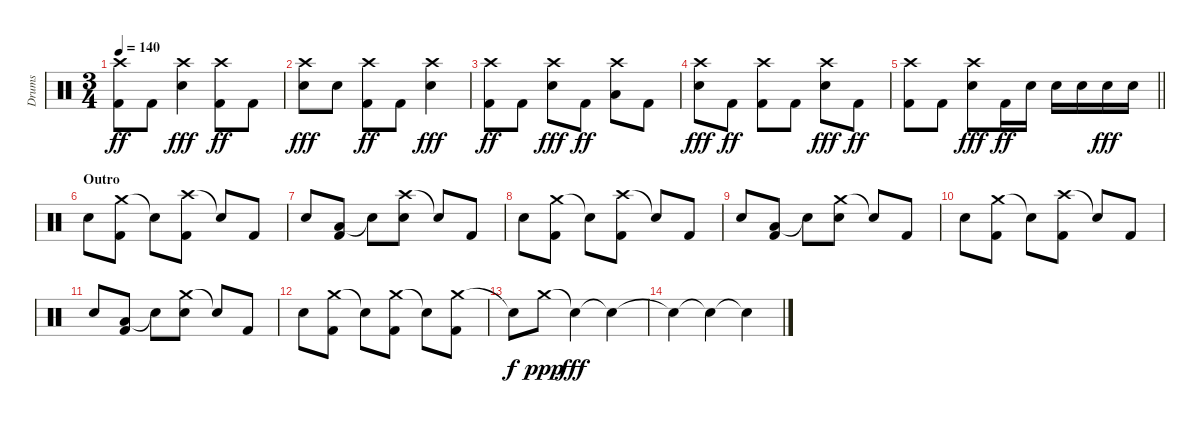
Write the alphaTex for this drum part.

\track ("Drums" "Drums") {instrument percussion}
\staff {score}
\articulation defaults
\ts (3 4)
\tempo 140
\clef neutral
\ks c
("Crash high (hit)" "Kick (hit) 2").8{dy ff} "Kick (hit) 2".8 ("Crash high (hit)" "Snare (hit) 2").4{dy fff} ("Crash high (hit)" "Kick (hit) 2").8{dy ff} "Kick (hit) 2".8 |
("Crash high (hit)" "Snare (hit) 2").8{dy fff} "Snare (hit) 2".8 ("Crash high (hit)" "Kick (hit) 2").8{dy ff} "Kick (hit) 2".8 ("Crash high (hit)" "Snare (hit) 2").4{dy fff} |
("Crash high (hit)" "Kick (hit) 2").8{dy ff} "Kick (hit) 2".8 ("Crash high (hit)" "Snare (hit) 2").8{dy fff} "Kick (hit) 2".8{dy ff} ("Crash high (hit)" "Low Tom (hit)").8 "Kick (hit) 2".8 |
("Crash high (hit)" "Snare (hit) 2").8{dy fff} "Kick (hit) 2".8{dy ff} ("Crash high (hit)" "Kick (hit) 2").8 "Kick (hit) 2".8 ("Crash high (hit)" "Snare (hit) 2").8{dy fff} "Kick (hit) 2".8{dy ff} |
\barLineRight lightlight
("Crash high (hit)" "Kick (hit) 2").8 "Kick (hit) 2".8 ("Crash high (hit)" "Snare (hit) 2").8{dy fff} "Kick (hit) 2".16{dy ff} "Snare (hit) 2".16 "Snare (hit) 2".16 "Snare (hit) 2".16 "Snare (hit) 2".16{dy fff} "Snare (hit) 2".16 |
\section ("" "Outro")
"Snare (hit) 2".8 ("Crash medium (hit)" "Kick (hit) 2").8 "Snare (hit)"{t}.8 ("Crash high (hit)" "Kick (hit) 2").8 "Snare (hit)"{t}.8 "Kick (hit) 2".8 |
"Snare (hit) 2".8 ("Low Tom (hit)" "Kick (hit) 2").8 "Snare (hit)"{t}.8 ("Crash high (hit)" "Snare (hit) 2").8 "Snare (hit)"{t}.8 "Kick (hit) 2".8 |
"Snare (hit) 2".8 ("Crash medium (hit)" "Kick (hit) 2").8 "Snare (hit)"{t}.8 ("Crash high (hit)" "Kick (hit) 2").8 "Snare (hit)"{t}.8 "Kick (hit) 2".8 |
"Snare (hit) 2".8 ("Low Tom (hit)" "Kick (hit) 2").8 "Snare (hit)"{t}.8 ("Crash medium (hit)" "Snare (hit) 2").8 "Snare (hit)"{t}.8 "Kick (hit) 2".8 |
"Snare (hit) 2".8 ("Crash medium (hit)" "Kick (hit) 2").8 "Snare (hit)"{t}.8 ("Crash high (hit)" "Kick (hit) 2").8 "Snare (hit)"{t}.8 "Kick (hit) 2".8 |
"Snare (hit) 2".8 ("Low Tom (hit)" "Kick (hit) 2").8 "Snare (hit)"{t}.8 ("Crash medium (hit)" "Snare (hit) 2").8 "Snare (hit)"{t}.8 "Kick (hit) 2".8 |
"Snare (hit) 2".8 ("Crash medium (hit)" "Kick (hit) 2").8 "Snare (hit)"{t}.8 ("Crash medium (hit)" "Kick (hit) 2").8 "Snare (hit)"{t}.8 ("Crash medium (hit)" "Kick (hit) 2").8 |
"Snare (hit)"{t}.8{dy f} "Crash medium (hit)".8{dy ppp} "Snare (hit)"{t}.4{dy fff} "Snare (hit)"{t}.4 |
"Snare (hit)"{t}.4 "Snare (hit)"{t}.4 "Snare (hit)"{t}.4
